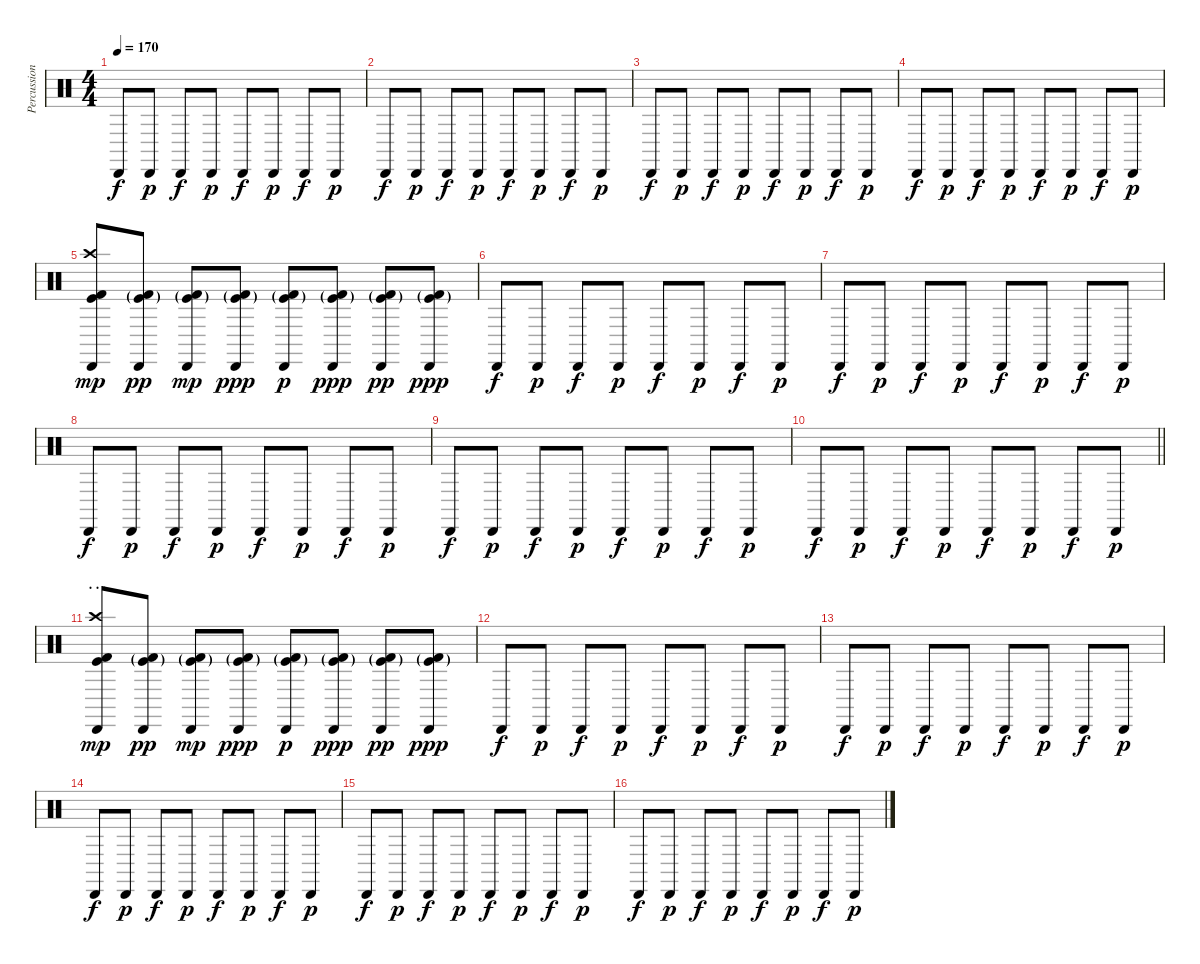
\track ("Percussion" "Percussion") {instrument percussion}
\staff {score}
\articulation defaults
\ts (4 4)
\tempo 170
\clef neutral
\ks c "Cabasa (hit)".8{dy f} "Cabasa (hit)".8{dy p} "Cabasa (hit)".8{dy f} "Cabasa (hit)".8{dy p} "Cabasa (hit)".8{dy f} "Cabasa (hit)".8{dy p} "Cabasa (hit)".8{dy f} "Cabasa (hit)".8{dy p}
|
"Cabasa (hit)".8{dy f} "Cabasa (hit)".8{dy p} "Cabasa (hit)".8{dy f} "Cabasa (hit)".8{dy p} "Cabasa (hit)".8{dy f} "Cabasa (hit)".8{dy p} "Cabasa (hit)".8{dy f} "Cabasa (hit)".8{dy p} |
"Cabasa (hit)".8{dy f} "Cabasa (hit)".8{dy p} "Cabasa (hit)".8{dy f} "Cabasa (hit)".8{dy p} "Cabasa (hit)".8{dy f} "Cabasa (hit)".8{dy p} "Cabasa (hit)".8{dy f} "Cabasa (hit)".8{dy p} |
"Cabasa (hit)".8{dy f} "Cabasa (hit)".8{dy p} "Cabasa (hit)".8{dy f} "Cabasa (hit)".8{dy p} "Cabasa (hit)".8{dy f} "Cabasa (hit)".8{dy p} "Cabasa (hit)".8{dy f} "Cabasa (hit)".8{dy p} |
("Cabasa (hit)" "Kick (hit)" "Kick (hit) 2" "Crash high (hit)").8{dy mp} ("Cabasa (hit)" "Kick (hit)"{g} "Kick (hit) 2"{g}).8{dy pp} ("Cabasa (hit)" "Kick (hit)"{g} "Kick (hit) 2"{g}).8{dy mp} ("Cabasa (hit)" "Kick (hit)"{g} "Kick (hit) 2"{g}).8{dy ppp} ("Cabasa (hit)" "Kick (hit)"{g} "Kick (hit) 2"{g}).8{dy p} ("Cabasa (hit)" "Kick (hit)"{g} "Kick (hit) 2"{g}).8{dy ppp} ("Cabasa (hit)" "Kick (hit)"{g} "Kick (hit) 2"{g}).8{dy pp} ("Cabasa (hit)" "Kick (hit)"{g} "Kick (hit) 2"{g}).8{dy ppp} |
"Cabasa (hit)".8{dy f} "Cabasa (hit)".8{dy p} "Cabasa (hit)".8{dy f} "Cabasa (hit)".8{dy p} "Cabasa (hit)".8{dy f} "Cabasa (hit)".8{dy p} "Cabasa (hit)".8{dy f} "Cabasa (hit)".8{dy p} |
"Cabasa (hit)".8{dy f} "Cabasa (hit)".8{dy p} "Cabasa (hit)".8{dy f} "Cabasa (hit)".8{dy p} "Cabasa (hit)".8{dy f} "Cabasa (hit)".8{dy p} "Cabasa (hit)".8{dy f} "Cabasa (hit)".8{dy p} |
"Cabasa (hit)".8{dy f} "Cabasa (hit)".8{dy p} "Cabasa (hit)".8{dy f} "Cabasa (hit)".8{dy p} "Cabasa (hit)".8{dy f} "Cabasa (hit)".8{dy p} "Cabasa (hit)".8{dy f} "Cabasa (hit)".8{dy p} |
"Cabasa (hit)".8{dy f} "Cabasa (hit)".8{dy p} "Cabasa (hit)".8{dy f} "Cabasa (hit)".8{dy p} "Cabasa (hit)".8{dy f} "Cabasa (hit)".8{dy p} "Cabasa (hit)".8{dy f} "Cabasa (hit)".8{dy p} |
\barLineRight lightlight "Cabasa (hit)".8{dy f} "Cabasa (hit)".8{dy p} "Cabasa (hit)".8{dy f} "Cabasa (hit)".8{dy p} "Cabasa (hit)".8{dy f} "Cabasa (hit)".8{dy p} "Cabasa (hit)".8{dy f} "Cabasa (hit)".8{dy p}
|
\section ("" ". . .")
("Cabasa (hit)" "Kick (hit)" "Kick (hit) 2" "Crash high (hit)").8{dy mp} ("Cabasa (hit)" "Kick (hit)"{g} "Kick (hit) 2"{g}).8{dy pp} ("Cabasa (hit)" "Kick (hit)"{g} "Kick (hit) 2"{g}).8{dy mp} ("Cabasa (hit)" "Kick (hit)"{g} "Kick (hit) 2"{g}).8{dy ppp} ("Cabasa (hit)" "Kick (hit)"{g} "Kick (hit) 2"{g}).8{dy p} ("Cabasa (hit)" "Kick (hit)"{g} "Kick (hit) 2"{g}).8{dy ppp} ("Cabasa (hit)" "Kick (hit)"{g} "Kick (hit) 2"{g}).8{dy pp} ("Cabasa (hit)" "Kick (hit)"{g} "Kick (hit) 2"{g}).8{dy ppp} |
"Cabasa (hit)".8{dy f} "Cabasa (hit)".8{dy p} "Cabasa (hit)".8{dy f} "Cabasa (hit)".8{dy p} "Cabasa (hit)".8{dy f} "Cabasa (hit)".8{dy p} "Cabasa (hit)".8{dy f} "Cabasa (hit)".8{dy p} |
"Cabasa (hit)".8{dy f} "Cabasa (hit)".8{dy p} "Cabasa (hit)".8{dy f} "Cabasa (hit)".8{dy p} "Cabasa (hit)".8{dy f} "Cabasa (hit)".8{dy p} "Cabasa (hit)".8{dy f} "Cabasa (hit)".8{dy p} |
"Cabasa (hit)".8{dy f} "Cabasa (hit)".8{dy p} "Cabasa (hit)".8{dy f} "Cabasa (hit)".8{dy p} "Cabasa (hit)".8{dy f} "Cabasa (hit)".8{dy p} "Cabasa (hit)".8{dy f} "Cabasa (hit)".8{dy p} |
"Cabasa (hit)".8{dy f} "Cabasa (hit)".8{dy p} "Cabasa (hit)".8{dy f} "Cabasa (hit)".8{dy p} "Cabasa (hit)".8{dy f} "Cabasa (hit)".8{dy p} "Cabasa (hit)".8{dy f} "Cabasa (hit)".8{dy p} |
"Cabasa (hit)".8{dy f} "Cabasa (hit)".8{dy p} "Cabasa (hit)".8{dy f} "Cabasa (hit)".8{dy p} "Cabasa (hit)".8{dy f} "Cabasa (hit)".8{dy p} "Cabasa (hit)".8{dy f} "Cabasa (hit)".8{dy p}
